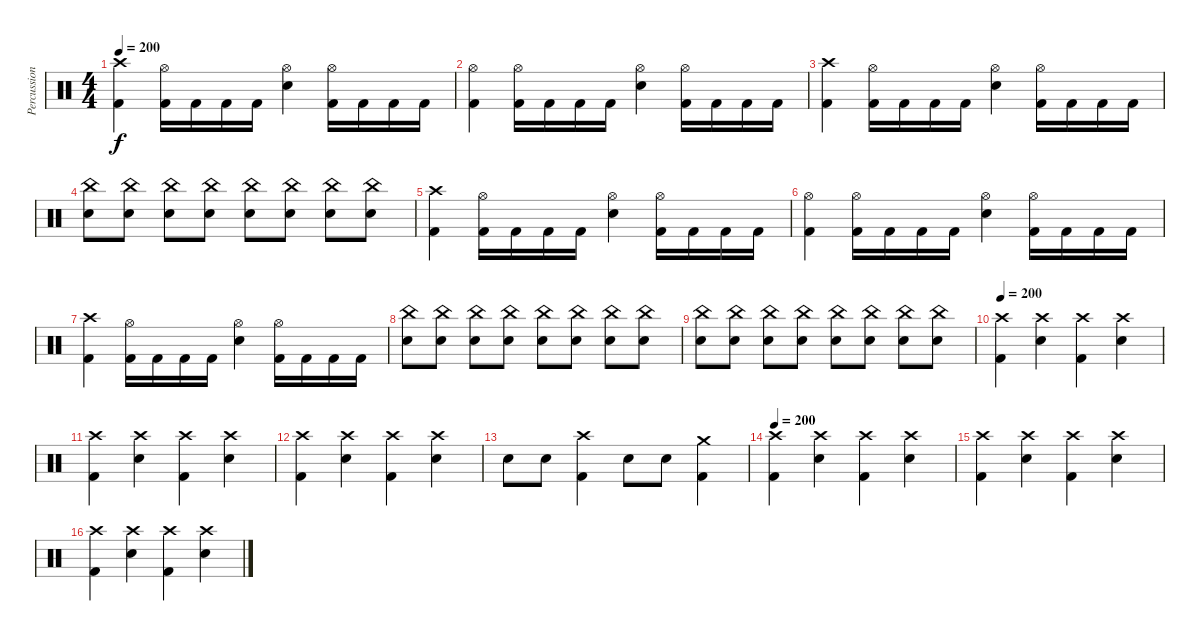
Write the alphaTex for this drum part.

\track ("Percussion" "Percussion") {instrument percussion}
\staff {score}
\articulation defaults
\ts (4 4)
\tempo 200
\clef neutral
\ks c
("Crash high (hit)" "Kick (hit) 2").4{dy f} ("Hi-Hat (open)" "Kick (hit) 2").16 "Kick (hit) 2".16 "Kick (hit) 2".16 "Kick (hit) 2".16 ("Hi-Hat (open)" "Electric Snare (hit)").4 ("Hi-Hat (open)" "Kick (hit) 2").16 "Kick (hit) 2".16 "Kick (hit) 2".16 "Kick (hit) 2".16 |
("Hi-Hat (open)" "Kick (hit) 2").4 ("Hi-Hat (open)" "Kick (hit) 2").16 "Kick (hit) 2".16 "Kick (hit) 2".16 "Kick (hit) 2".16 ("Hi-Hat (open)" "Electric Snare (hit)").4 ("Hi-Hat (open)" "Kick (hit) 2").16 "Kick (hit) 2".16 "Kick (hit) 2".16 "Kick (hit) 2".16 |
("Crash high (hit)" "Kick (hit) 2").4 ("Hi-Hat (open)" "Kick (hit) 2").16 "Kick (hit) 2".16 "Kick (hit) 2".16 "Kick (hit) 2".16 ("Hi-Hat (open)" "Electric Snare (hit)").4 ("Hi-Hat (open)" "Kick (hit) 2").16 "Kick (hit) 2".16 "Kick (hit) 2".16 "Kick (hit) 2".16 |
("China (hit)" "Electric Snare (hit)").8 ("China (hit)" "Electric Snare (hit)").8 ("China (hit)" "Electric Snare (hit)").8 ("China (hit)" "Electric Snare (hit)").8 ("China (hit)" "Electric Snare (hit)").8 ("China (hit)" "Electric Snare (hit)").8 ("China (hit)" "Electric Snare (hit)").8 ("China (hit)" "Electric Snare (hit)").8 |
("Crash high (hit)" "Kick (hit) 2").4 ("Hi-Hat (open)" "Kick (hit) 2").16 "Kick (hit) 2".16 "Kick (hit) 2".16 "Kick (hit) 2".16 ("Hi-Hat (open)" "Electric Snare (hit)").4 ("Hi-Hat (open)" "Kick (hit) 2").16 "Kick (hit) 2".16 "Kick (hit) 2".16 "Kick (hit) 2".16 |
("Hi-Hat (open)" "Kick (hit) 2").4 ("Hi-Hat (open)" "Kick (hit) 2").16 "Kick (hit) 2".16 "Kick (hit) 2".16 "Kick (hit) 2".16 ("Hi-Hat (open)" "Electric Snare (hit)").4 ("Hi-Hat (open)" "Kick (hit) 2").16 "Kick (hit) 2".16 "Kick (hit) 2".16 "Kick (hit) 2".16 |
("Crash high (hit)" "Kick (hit) 2").4 ("Hi-Hat (open)" "Kick (hit) 2").16 "Kick (hit) 2".16 "Kick (hit) 2".16 "Kick (hit) 2".16 ("Hi-Hat (open)" "Electric Snare (hit)").4 ("Hi-Hat (open)" "Kick (hit) 2").16 "Kick (hit) 2".16 "Kick (hit) 2".16 "Kick (hit) 2".16 |
("China (hit)" "Electric Snare (hit)").8 ("China (hit)" "Electric Snare (hit)").8 ("China (hit)" "Electric Snare (hit)").8 ("China (hit)" "Electric Snare (hit)").8 ("China (hit)" "Electric Snare (hit)").8 ("China (hit)" "Electric Snare (hit)").8 ("China (hit)" "Electric Snare (hit)").8 ("China (hit)" "Electric Snare (hit)").8 |
("China (hit)" "Electric Snare (hit)").8 ("China (hit)" "Electric Snare (hit)").8 ("China (hit)" "Electric Snare (hit)").8 ("China (hit)" "Electric Snare (hit)").8 ("China (hit)" "Electric Snare (hit)").8 ("China (hit)" "Electric Snare (hit)").8 ("China (hit)" "Electric Snare (hit)").8 ("China (hit)" "Electric Snare (hit)").8 |
\tempo 200
("Crash high (hit)" "Kick (hit) 2").4 ("Crash high (hit)" "Electric Snare (hit)").4 ("Crash high (hit)" "Kick (hit) 2").4 ("Crash high (hit)" "Electric Snare (hit)").4 |
("Crash high (hit)" "Kick (hit) 2").4 ("Crash high (hit)" "Electric Snare (hit)").4 ("Crash high (hit)" "Kick (hit) 2").4 ("Crash high (hit)" "Electric Snare (hit)").4 |
("Crash high (hit)" "Kick (hit) 2").4 ("Crash high (hit)" "Electric Snare (hit)").4 ("Crash high (hit)" "Kick (hit) 2").4 ("Crash high (hit)" "Electric Snare (hit)").4 |
"Electric Snare (hit)".8 "Electric Snare (hit)".8 ("Crash high (hit)" "Kick (hit) 2").4 "Electric Snare (hit)".8 "Electric Snare (hit)".8 ("Crash medium (hit)" "Kick (hit) 2").4 |
\tempo 200
("Crash high (hit)" "Kick (hit) 2").4 ("Crash high (hit)" "Electric Snare (hit)").4 ("Crash high (hit)" "Kick (hit) 2").4 ("Crash high (hit)" "Electric Snare (hit)").4 |
("Crash high (hit)" "Kick (hit) 2").4 ("Crash high (hit)" "Electric Snare (hit)").4 ("Crash high (hit)" "Kick (hit) 2").4 ("Crash high (hit)" "Electric Snare (hit)").4 |
("Crash high (hit)" "Kick (hit) 2").4 ("Crash high (hit)" "Electric Snare (hit)").4 ("Crash high (hit)" "Kick (hit) 2").4 ("Crash high (hit)" "Electric Snare (hit)").4
